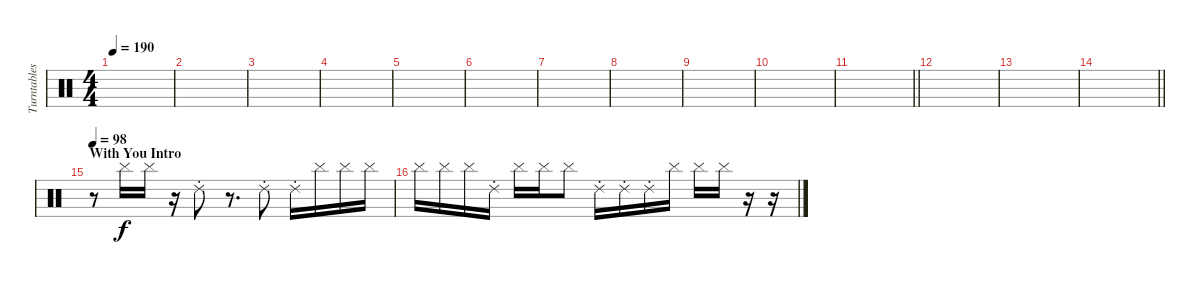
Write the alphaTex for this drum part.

\track ("Turntables - Joe Hahn" "Turntables") {instrument percussion}
\staff {score}
\articulation defaults
\ts (4 4)
\tempo 190
\clef neutral
\ks c
|
|
|
|
|
|
|
|
|
|
\barLineRight lightlight
|
|
|
\barLineRight lightlight
|
\section ("" "With You Intro")
\tempo 98
r.8{volume 8} "Cymbal (hit)".16{dy f} "Cymbal (hit)".16 r.16 "Ride (choke) 2".8 r.8{d} "Ride (choke) 2".8 "Ride (choke) 2".16 "Cymbal (hit)".16 "Cymbal (hit)".16 "Cymbal (hit)".16 |
"Cymbal (hit)".16 "Cymbal (hit)".16 "Cymbal (hit)".16 "Ride (choke) 2".16 "Cymbal (hit)".16 "Cymbal (hit)".16 "Cymbal (hit)".8 "Ride (choke) 2".16 "Ride (choke) 2".16 "Ride (choke) 2".16 "Cymbal (hit)".16 "Cymbal (hit)".16 "Cymbal (hit)".16 r.16 r.16
